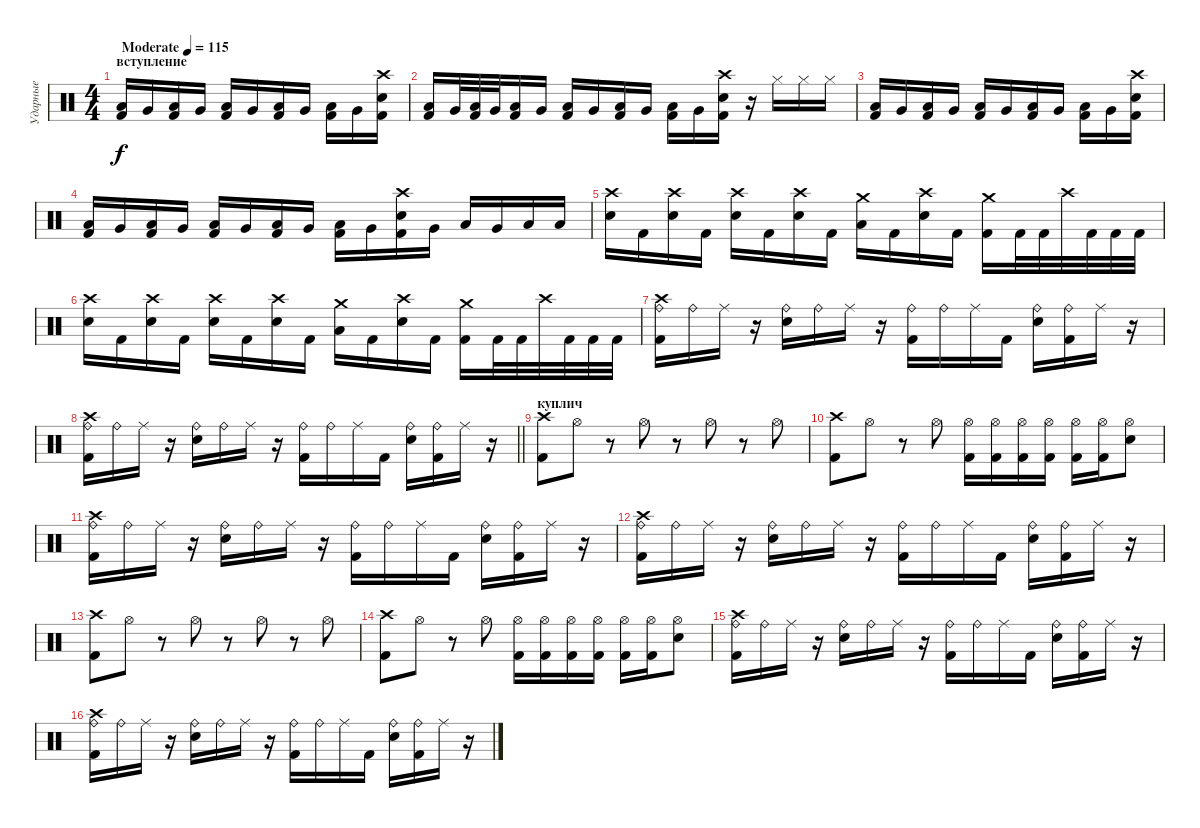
\track ("Ударные" "Ударные") {instrument percussion}
\staff {score}
\articulation defaults
\ts (4 4)
\section ("" "вступление")
\tempo (115 "Moderate")
\clef neutral
\ks c
("Kick (hit) 2" "Low Tom (hit)").16{dy f} "Very Low Tom (hit)".16 ("Kick (hit) 2" "Low Tom (hit)").16 "Very Low Tom (hit)".16 ("Kick (hit) 2" "Low Floor Tom (hit)").16 "Very Low Tom (hit)".16 ("Kick (hit) 2" "Low Floor Tom (hit)").16 "Very Low Tom (hit)".16 ("Kick (hit) 2" "Low Floor Tom (hit)").16 "Very Low Tom (hit)".16 ("Electric Snare (hit)" "Crash high (hit)" "Kick (hit) 2").16 |
("Kick (hit) 2" "Low Tom (hit)").16 "Very Low Tom (hit)".32 ("Kick (hit) 2" "Low Tom (hit)").32 "Very Low Tom (hit)".32 ("Kick (hit) 2" "Low Floor Tom (hit)").16 "Very Low Tom (hit)".16 ("Kick (hit) 2" "Low Floor Tom (hit)").16 "Very Low Tom (hit)".16 ("Kick (hit) 2" "Low Floor Tom (hit)").16 "Very Low Tom (hit)".16 ("Kick (hit) 2" "Low Floor Tom (hit)").16 "Very Low Tom (hit)".16 ("Crash high (hit)" "Electric Snare (hit)" "Kick (hit) 2").16 r.16 "Hi-Hat (closed)".16 "Hi-Hat (closed)".16 "Hi-Hat (closed)".16 |
("Kick (hit) 2" "Low Tom (hit)").16 "Very Low Tom (hit)".16 ("Kick (hit) 2" "Low Tom (hit)").16 "Very Low Tom (hit)".16 ("Kick (hit) 2" "Low Floor Tom (hit)").16 "Very Low Tom (hit)".16 ("Kick (hit) 2" "Low Floor Tom (hit)").16 "Very Low Tom (hit)".16 ("Kick (hit) 2" "Low Floor Tom (hit)").16 "Very Low Tom (hit)".16 ("Electric Snare (hit)" "Crash high (hit)" "Kick (hit) 2").16 |
("Kick (hit) 2" "Low Tom (hit)").16 "Very Low Tom (hit)".16 ("Kick (hit) 2" "Low Tom (hit)").16 "Very Low Tom (hit)".16 ("Kick (hit) 2" "Low Floor Tom (hit)").16 "Very Low Tom (hit)".16 ("Kick (hit) 2" "Low Floor Tom (hit)").16 "Very Low Tom (hit)".16 ("Kick (hit) 2" "Low Floor Tom (hit)").16 "Very Low Tom (hit)".16 ("Electric Snare (hit)" "Crash high (hit)" "Kick (hit) 2").16 "Very Low Tom (hit)".16 "Low Floor Tom (hit)".16 "Very Low Tom (hit)".16 "Low Floor Tom (hit)".16 "Low Floor Tom (hit)".16 |
("Crash high (hit)" "Electric Snare (hit)").16 "Kick (hit) 2".16 ("Crash high (hit)" "Electric Snare (hit)").16 "Kick (hit) 2".16 ("Crash high (hit)" "Electric Snare (hit)").16 "Kick (hit) 2".16 ("Crash high (hit)" "Electric Snare (hit)").16 "Kick (hit) 2".16 ("Crash medium (hit)" "Low Floor Tom (hit)").16 "Kick (hit) 2".16 ("Crash high (hit)" "Electric Snare (hit)").16 "Kick (hit) 2".16 ("Crash medium (hit)" "Kick (hit) 2").16 "Kick (hit) 2".32 "Kick (hit) 2".32 "Crash high (hit)".32 "Kick (hit) 2".32 "Kick (hit) 2".32 "Kick (hit) 2".32 |
("Crash high (hit)" "Electric Snare (hit)").16 "Kick (hit) 2".16 ("Crash high (hit)" "Electric Snare (hit)").16 "Kick (hit) 2".16 ("Crash high (hit)" "Electric Snare (hit)").16 "Kick (hit) 2".16 ("Crash high (hit)" "Electric Snare (hit)").16 "Kick (hit) 2".16 ("Crash medium (hit)" "Low Floor Tom (hit)").16 "Kick (hit) 2".16 ("Crash high (hit)" "Electric Snare (hit)").16 "Kick (hit) 2".16 ("Crash medium (hit)" "Kick (hit) 2").16 "Kick (hit) 2".32 "Kick (hit) 2".32 "Crash high (hit)".32 "Kick (hit) 2".32 "Kick (hit) 2".32 "Kick (hit) 2".32 |
("Crash high (hit)" "Ride (bell)" "Kick (hit) 2").16 "Ride (bell)".16 "Ride (middle)".16 r.16 ("Ride (bell)" "Electric Snare (hit)").16 "Ride (bell)".16 "Ride (middle)".16 r.16 ("Ride (bell)" "Kick (hit) 2").16 "Ride (bell)".16 "Ride (middle)".16 "Kick (hit) 2".16 ("Ride (bell)" "Electric Snare (hit)").16 ("Ride (bell)" "Kick (hit) 2").16 "Ride (middle)".16 r.16 |
\barLineRight lightlight
("Crash high (hit)" "Ride (bell)" "Kick (hit) 2").16 "Ride (bell)".16 "Ride (middle)".16 r.16 ("Ride (bell)" "Electric Snare (hit)").16 "Ride (bell)".16 "Ride (middle)".16 r.16 ("Ride (bell)" "Kick (hit) 2").16 "Ride (bell)".16 "Ride (middle)".16 "Kick (hit) 2".16 ("Ride (bell)" "Electric Snare (hit)").16 ("Ride (bell)" "Kick (hit) 2").16 "Ride (middle)".16 r.16 |
\section ("" "куплич")
("Crash high (hit)" "Kick (hit) 2").8 "Hi-Hat (open)".8 r.8 "Hi-Hat (open)".8 r.8 "Hi-Hat (open)".8 r.8 "Hi-Hat (open)".8 |
("Crash high (hit)" "Kick (hit) 2").8 "Hi-Hat (open)".8 r.8 "Hi-Hat (open)".8 ("Hi-Hat (open)" "Kick (hit) 2").16 ("Hi-Hat (open)" "Kick (hit) 2").16 ("Hi-Hat (open)" "Kick (hit) 2").16 ("Hi-Hat (open)" "Kick (hit) 2").16 ("Hi-Hat (open)" "Kick (hit) 2").16 ("Hi-Hat (open)" "Kick (hit) 2").16 ("Hi-Hat (open)" "Electric Snare (hit)").8 |
("Crash high (hit)" "Ride (bell)" "Kick (hit) 2").16 "Ride (bell)".16 "Ride (middle)".16 r.16 ("Ride (bell)" "Electric Snare (hit)").16 "Ride (bell)".16 "Ride (middle)".16 r.16 ("Ride (bell)" "Kick (hit) 2").16 "Ride (bell)".16 "Ride (middle)".16 "Kick (hit) 2".16 ("Ride (bell)" "Electric Snare (hit)").16 ("Ride (bell)" "Kick (hit) 2").16 "Ride (middle)".16 r.16 |
("Crash high (hit)" "Ride (bell)" "Kick (hit) 2").16 "Ride (bell)".16 "Ride (middle)".16 r.16 ("Ride (bell)" "Electric Snare (hit)").16 "Ride (bell)".16 "Ride (middle)".16 r.16 ("Ride (bell)" "Kick (hit) 2").16 "Ride (bell)".16 "Ride (middle)".16 "Kick (hit) 2".16 ("Ride (bell)" "Electric Snare (hit)").16 ("Ride (bell)" "Kick (hit) 2").16 "Ride (middle)".16 r.16 |
("Crash high (hit)" "Kick (hit) 2").8 "Hi-Hat (open)".8 r.8 "Hi-Hat (open)".8 r.8 "Hi-Hat (open)".8 r.8 "Hi-Hat (open)".8 |
("Crash high (hit)" "Kick (hit) 2").8 "Hi-Hat (open)".8 r.8 "Hi-Hat (open)".8 ("Hi-Hat (open)" "Kick (hit) 2").16 ("Hi-Hat (open)" "Kick (hit) 2").16 ("Hi-Hat (open)" "Kick (hit) 2").16 ("Hi-Hat (open)" "Kick (hit) 2").16 ("Hi-Hat (open)" "Kick (hit) 2").16 ("Hi-Hat (open)" "Kick (hit) 2").16 ("Hi-Hat (open)" "Electric Snare (hit)").8 |
("Crash high (hit)" "Ride (bell)" "Kick (hit) 2").16 "Ride (bell)".16 "Ride (middle)".16 r.16 ("Ride (bell)" "Electric Snare (hit)").16 "Ride (bell)".16 "Ride (middle)".16 r.16 ("Ride (bell)" "Kick (hit) 2").16 "Ride (bell)".16 "Ride (middle)".16 "Kick (hit) 2".16 ("Ride (bell)" "Electric Snare (hit)").16 ("Ride (bell)" "Kick (hit) 2").16 "Ride (middle)".16 r.16 |
("Crash high (hit)" "Ride (bell)" "Kick (hit) 2").16 "Ride (bell)".16 "Ride (middle)".16 r.16 ("Ride (bell)" "Electric Snare (hit)").16 "Ride (bell)".16 "Ride (middle)".16 r.16 ("Ride (bell)" "Kick (hit) 2").16 "Ride (bell)".16 "Ride (middle)".16 "Kick (hit) 2".16 ("Ride (bell)" "Electric Snare (hit)").16 ("Ride (bell)" "Kick (hit) 2").16 "Ride (middle)".16 r.16
